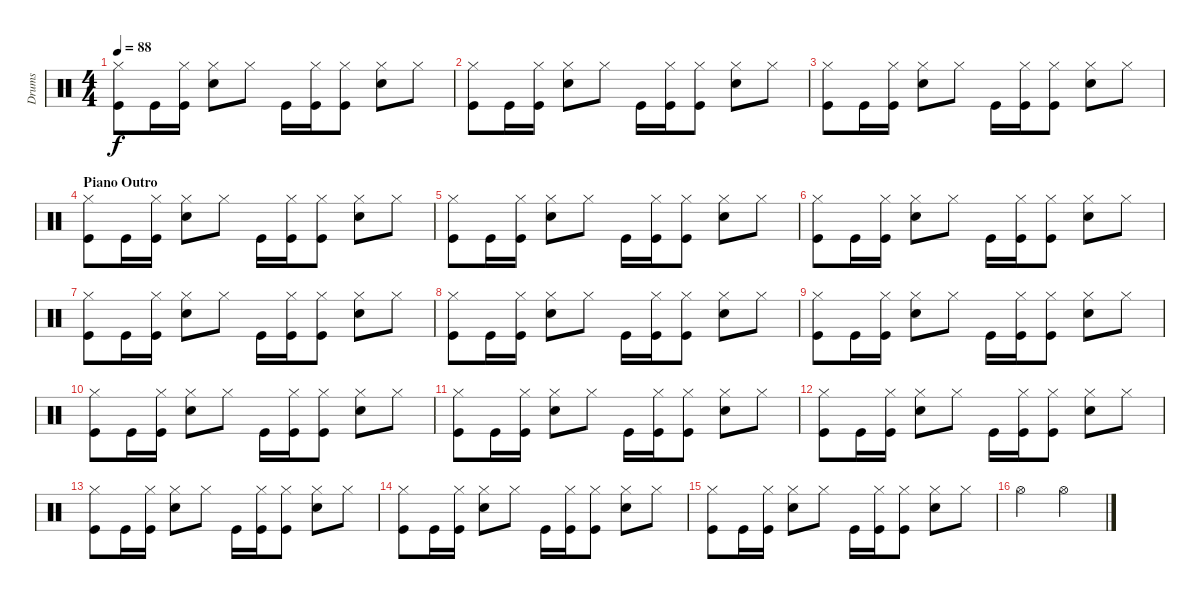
\track ("Drums" "Drums") {instrument percussion}
\staff {score}
\articulation defaults
\ts (4 4)
\tempo 88
\clef neutral
\ks c
("Hi-Hat (closed)" "Kick (hit)").8{dy f} "Kick (hit)".16 ("Hi-Hat (closed)" "Kick (hit)").16 ("Hi-Hat (closed)" "Snare (hit) 2").8 "Hi-Hat (closed)".8 "Kick (hit)".16 ("Hi-Hat (closed)" "Kick (hit)").16 ("Hi-Hat (closed)" "Kick (hit)").8 ("Hi-Hat (closed)" "Snare (hit) 2").8 "Hi-Hat (closed)".8 |
("Hi-Hat (closed)" "Kick (hit)").8 "Kick (hit)".16 ("Hi-Hat (closed)" "Kick (hit)").16 ("Hi-Hat (closed)" "Snare (hit) 2").8 "Hi-Hat (closed)".8 "Kick (hit)".16 ("Hi-Hat (closed)" "Kick (hit)").16 ("Hi-Hat (closed)" "Kick (hit)").8 ("Hi-Hat (closed)" "Snare (hit) 2").8 "Hi-Hat (closed)".8 |
("Hi-Hat (closed)" "Kick (hit)").8 "Kick (hit)".16 ("Hi-Hat (closed)" "Kick (hit)").16 ("Hi-Hat (closed)" "Snare (hit) 2").8 "Hi-Hat (closed)".8 "Kick (hit)".16 ("Hi-Hat (closed)" "Kick (hit)").16 ("Hi-Hat (closed)" "Kick (hit)").8 ("Hi-Hat (closed)" "Snare (hit) 2").8 "Hi-Hat (closed)".8 |
\section ("" "Piano Outro")
("Hi-Hat (closed)" "Kick (hit)").8 "Kick (hit)".16 ("Hi-Hat (closed)" "Kick (hit)").16 ("Hi-Hat (closed)" "Snare (hit) 2").8 "Hi-Hat (closed)".8 "Kick (hit)".16 ("Hi-Hat (closed)" "Kick (hit)").16 ("Hi-Hat (closed)" "Kick (hit)").8 ("Hi-Hat (closed)" "Snare (hit) 2").8 "Hi-Hat (closed)".8 |
("Hi-Hat (closed)" "Kick (hit)").8 "Kick (hit)".16 ("Hi-Hat (closed)" "Kick (hit)").16 ("Hi-Hat (closed)" "Snare (hit) 2").8 "Hi-Hat (closed)".8 "Kick (hit)".16 ("Hi-Hat (closed)" "Kick (hit)").16 ("Hi-Hat (closed)" "Kick (hit)").8 ("Hi-Hat (closed)" "Snare (hit) 2").8 "Hi-Hat (closed)".8 |
("Hi-Hat (closed)" "Kick (hit)").8 "Kick (hit)".16 ("Hi-Hat (closed)" "Kick (hit)").16 ("Hi-Hat (closed)" "Snare (hit) 2").8 "Hi-Hat (closed)".8 "Kick (hit)".16 ("Hi-Hat (closed)" "Kick (hit)").16 ("Hi-Hat (closed)" "Kick (hit)").8 ("Hi-Hat (closed)" "Snare (hit) 2").8 "Hi-Hat (closed)".8 |
("Hi-Hat (closed)" "Kick (hit)").8 "Kick (hit)".16 ("Hi-Hat (closed)" "Kick (hit)").16 ("Hi-Hat (closed)" "Snare (hit) 2").8 "Hi-Hat (closed)".8 "Kick (hit)".16 ("Hi-Hat (closed)" "Kick (hit)").16 ("Hi-Hat (closed)" "Kick (hit)").8 ("Hi-Hat (closed)" "Snare (hit) 2").8 "Hi-Hat (closed)".8 |
("Hi-Hat (closed)" "Kick (hit)").8 "Kick (hit)".16 ("Hi-Hat (closed)" "Kick (hit)").16 ("Hi-Hat (closed)" "Snare (hit) 2").8 "Hi-Hat (closed)".8 "Kick (hit)".16 ("Hi-Hat (closed)" "Kick (hit)").16 ("Hi-Hat (closed)" "Kick (hit)").8 ("Hi-Hat (closed)" "Snare (hit) 2").8 "Hi-Hat (closed)".8 |
("Hi-Hat (closed)" "Kick (hit)").8 "Kick (hit)".16 ("Hi-Hat (closed)" "Kick (hit)").16 ("Hi-Hat (closed)" "Snare (hit) 2").8 "Hi-Hat (closed)".8 "Kick (hit)".16 ("Hi-Hat (closed)" "Kick (hit)").16 ("Hi-Hat (closed)" "Kick (hit)").8 ("Hi-Hat (closed)" "Snare (hit) 2").8 "Hi-Hat (closed)".8 |
("Hi-Hat (closed)" "Kick (hit)").8 "Kick (hit)".16 ("Hi-Hat (closed)" "Kick (hit)").16 ("Hi-Hat (closed)" "Snare (hit) 2").8 "Hi-Hat (closed)".8 "Kick (hit)".16 ("Hi-Hat (closed)" "Kick (hit)").16 ("Hi-Hat (closed)" "Kick (hit)").8 ("Hi-Hat (closed)" "Snare (hit) 2").8 "Hi-Hat (closed)".8 |
("Hi-Hat (closed)" "Kick (hit)").8{volume 10} "Kick (hit)".16 ("Hi-Hat (closed)" "Kick (hit)").16 ("Hi-Hat (closed)" "Snare (hit) 2").8 "Hi-Hat (closed)".8 "Kick (hit)".16 ("Hi-Hat (closed)" "Kick (hit)").16 ("Hi-Hat (closed)" "Kick (hit)").8 ("Hi-Hat (closed)" "Snare (hit) 2").8 "Hi-Hat (closed)".8 |
("Hi-Hat (closed)" "Kick (hit)").8 "Kick (hit)".16 ("Hi-Hat (closed)" "Kick (hit)").16 ("Hi-Hat (closed)" "Snare (hit) 2").8 "Hi-Hat (closed)".8 "Kick (hit)".16 ("Hi-Hat (closed)" "Kick (hit)").16 ("Hi-Hat (closed)" "Kick (hit)").8 ("Hi-Hat (closed)" "Snare (hit) 2").8 "Hi-Hat (closed)".8 |
("Hi-Hat (closed)" "Kick (hit)").8{volume 5} "Kick (hit)".16 ("Hi-Hat (closed)" "Kick (hit)").16 ("Hi-Hat (closed)" "Snare (hit) 2").8 "Hi-Hat (closed)".8 "Kick (hit)".16 ("Hi-Hat (closed)" "Kick (hit)").16 ("Hi-Hat (closed)" "Kick (hit)").8 ("Hi-Hat (closed)" "Snare (hit) 2").8 "Hi-Hat (closed)".8 |
("Hi-Hat (closed)" "Kick (hit)").8 "Kick (hit)".16 ("Hi-Hat (closed)" "Kick (hit)").16 ("Hi-Hat (closed)" "Snare (hit) 2").8 "Hi-Hat (closed)".8 "Kick (hit)".16 ("Hi-Hat (closed)" "Kick (hit)").16 ("Hi-Hat (closed)" "Kick (hit)").8 ("Hi-Hat (closed)" "Snare (hit) 2").8 "Hi-Hat (closed)".8 |
("Hi-Hat (closed)" "Kick (hit)").8{volume 0} "Kick (hit)".16 ("Hi-Hat (closed)" "Kick (hit)").16 ("Hi-Hat (closed)" "Snare (hit) 2").8 "Hi-Hat (closed)".8 "Kick (hit)".16 ("Hi-Hat (closed)" "Kick (hit)").16 ("Hi-Hat (closed)" "Kick (hit)").8 ("Hi-Hat (closed)" "Snare (hit) 2").8 "Hi-Hat (closed)".8 |
"Hi-Hat (open)".2 "Hi-Hat (open)".2
